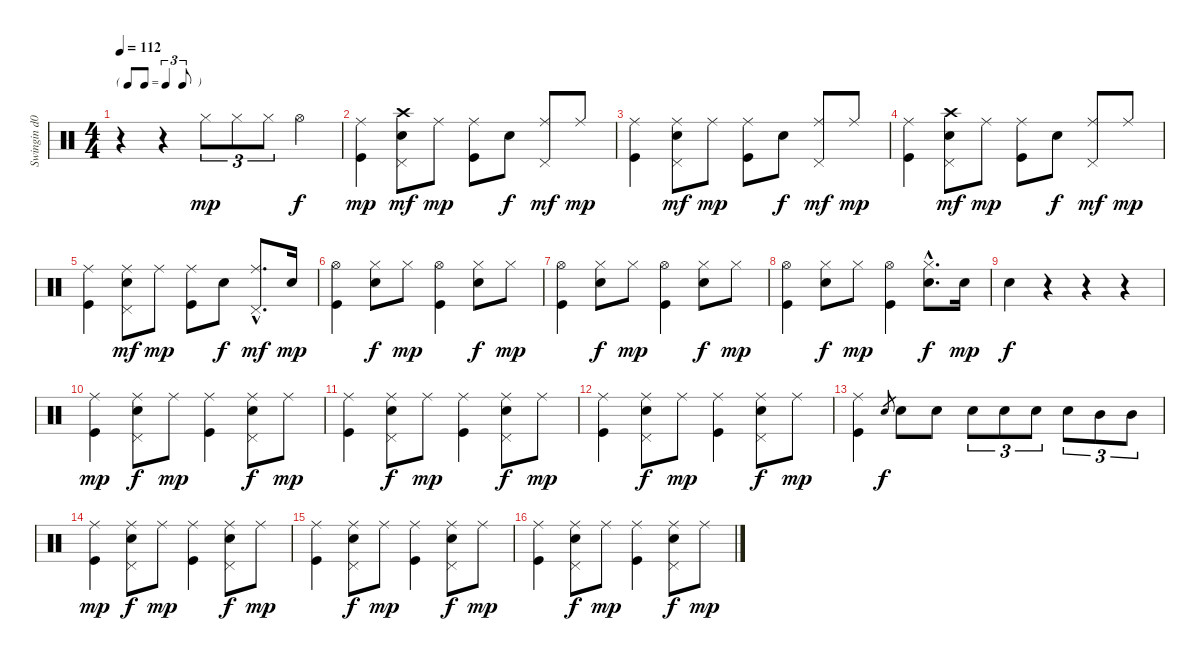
\track ("Swingin d00d" "Swingin d0") {instrument percussion}
\staff {score}
\articulation defaults
\ts (4 4)
\tf triplet8th
\tempo 112
\clef neutral
\ks c
r.4{dy mp} r.4 "Hi-Hat (closed)".8{tu (3 2)} "Hi-Hat (closed)".8{tu (3 2)} "Hi-Hat (closed)".8{tu (3 2)} "Hi-Hat (open)".4{dy f} |
("Ride (middle)" "Kick (hit)").4{dy mp} ("Crash high (hit)" "Pedal Hi-Hat (hit)" "Electric Snare (hit)").8{dy mf} "Ride (middle)".8{dy mp} ("Ride (middle)" "Kick (hit)").8 "Electric Snare (hit)".8{dy f} ("Ride (middle)" "Pedal Hi-Hat (hit)").8{dy mf} "Ride (middle)".8{dy mp} |
("Ride (middle)" "Kick (hit)").4 ("Ride (middle)" "Pedal Hi-Hat (hit)" "Electric Snare (hit)").8{dy mf} "Ride (middle)".8{dy mp} ("Ride (middle)" "Kick (hit)").8 "Electric Snare (hit)".8{dy f} ("Ride (middle)" "Pedal Hi-Hat (hit)").8{dy mf} "Ride (middle)".8{dy mp} |
("Ride (middle)" "Kick (hit)").4 ("Crash high (hit)" "Pedal Hi-Hat (hit)" "Electric Snare (hit)").8{dy mf} "Ride (middle)".8{dy mp} ("Ride (middle)" "Kick (hit)").8 "Electric Snare (hit)".8{dy f} ("Ride (middle)" "Pedal Hi-Hat (hit)").8{dy mf} "Ride (middle)".8{dy mp} |
("Ride (middle)" "Kick (hit)").4 ("Ride (middle)" "Pedal Hi-Hat (hit)" "Electric Snare (hit)").8{dy mf} "Ride (middle)".8{dy mp} ("Ride (middle)" "Kick (hit)").8 "Electric Snare (hit)".8{dy f} ("Ride (middle)"{hac} "Pedal Hi-Hat (hit)"{hac}).8{d dy mf} "Electric Snare (hit)"{tr (40 64)}.16{dy mp} |
("Hi-Hat (open)" "Kick (hit)").4 ("Hi-Hat (closed)" "Electric Snare (hit)").8{dy f} "Hi-Hat (closed)".8{dy mp} ("Hi-Hat (open)" "Kick (hit)").4 ("Hi-Hat (closed)" "Electric Snare (hit)").8{dy f} "Hi-Hat (closed)".8{dy mp} |
("Hi-Hat (open)" "Kick (hit)").4 ("Hi-Hat (closed)" "Electric Snare (hit)").8{dy f} "Hi-Hat (closed)".8{dy mp} ("Hi-Hat (open)" "Kick (hit)").4 ("Hi-Hat (closed)" "Electric Snare (hit)").8{dy f} "Hi-Hat (closed)".8{dy mp} |
("Hi-Hat (open)" "Kick (hit)").4 ("Hi-Hat (closed)" "Electric Snare (hit)").8{dy f} "Hi-Hat (closed)".8{dy mp} ("Hi-Hat (open)" "Kick (hit)").4 ("Hi-Hat (closed)"{hac} "Electric Snare (hit)"{hac}).8{d dy f} "Electric Snare (hit)"{tr (40 64)}.16{dy mp} |
"Electric Snare (hit)".4{dy f} r.4 r.4 r.4 |
("Ride (middle)" "Kick (hit)").4{dy mp} ("Ride (middle)" "Pedal Hi-Hat (hit)" "Electric Snare (hit)").8{dy f} "Ride (middle)".8{dy mp} ("Ride (middle)" "Kick (hit)").4 ("Ride (middle)" "Pedal Hi-Hat (hit)" "Electric Snare (hit)").8{dy f} "Ride (middle)".8{dy mp} |
("Ride (middle)" "Kick (hit)").4 ("Ride (middle)" "Pedal Hi-Hat (hit)" "Electric Snare (hit)").8{dy f} "Ride (middle)".8{dy mp} ("Ride (middle)" "Kick (hit)").4 ("Ride (middle)" "Pedal Hi-Hat (hit)" "Electric Snare (hit)").8{dy f} "Ride (middle)".8{dy mp} |
("Ride (middle)" "Kick (hit)").4 ("Ride (middle)" "Pedal Hi-Hat (hit)" "Electric Snare (hit)").8{dy f} "Ride (middle)".8{dy mp} ("Ride (middle)" "Kick (hit)").4 ("Ride (middle)" "Pedal Hi-Hat (hit)" "Electric Snare (hit)").8{dy f} "Ride (middle)".8{dy mp} |
("Ride (middle)" "Kick (hit)").4 "Electric Snare (hit)".8{gr dy f} "Electric Snare (hit)".8 "Electric Snare (hit)".8 "Electric Snare (hit)".8{tu (3 2)} "Electric Snare (hit)".8{tu (3 2)} "Electric Snare (hit)".8{tu (3 2)} "Electric Snare (hit)".8{tu (3 2)} "Mid Tom (hit)".8{tu (3 2)} "Mid Tom (hit)".8{tu (3 2)} |
("Ride (middle)" "Kick (hit)").4{dy mp} ("Ride (middle)" "Pedal Hi-Hat (hit)" "Electric Snare (hit)").8{dy f} "Ride (middle)".8{dy mp} ("Ride (middle)" "Kick (hit)").4 ("Ride (middle)" "Pedal Hi-Hat (hit)" "Electric Snare (hit)").8{dy f} "Ride (middle)".8{dy mp} |
("Ride (middle)" "Kick (hit)").4 ("Ride (middle)" "Pedal Hi-Hat (hit)" "Electric Snare (hit)").8{dy f} "Ride (middle)".8{dy mp} ("Ride (middle)" "Kick (hit)").4 ("Ride (middle)" "Pedal Hi-Hat (hit)" "Electric Snare (hit)").8{dy f} "Ride (middle)".8{dy mp} |
("Ride (middle)" "Kick (hit)").4 ("Ride (middle)" "Pedal Hi-Hat (hit)" "Electric Snare (hit)").8{dy f} "Ride (middle)".8{dy mp} ("Ride (middle)" "Kick (hit)").4 ("Ride (middle)" "Pedal Hi-Hat (hit)" "Electric Snare (hit)").8{dy f} "Ride (middle)".8{dy mp}
